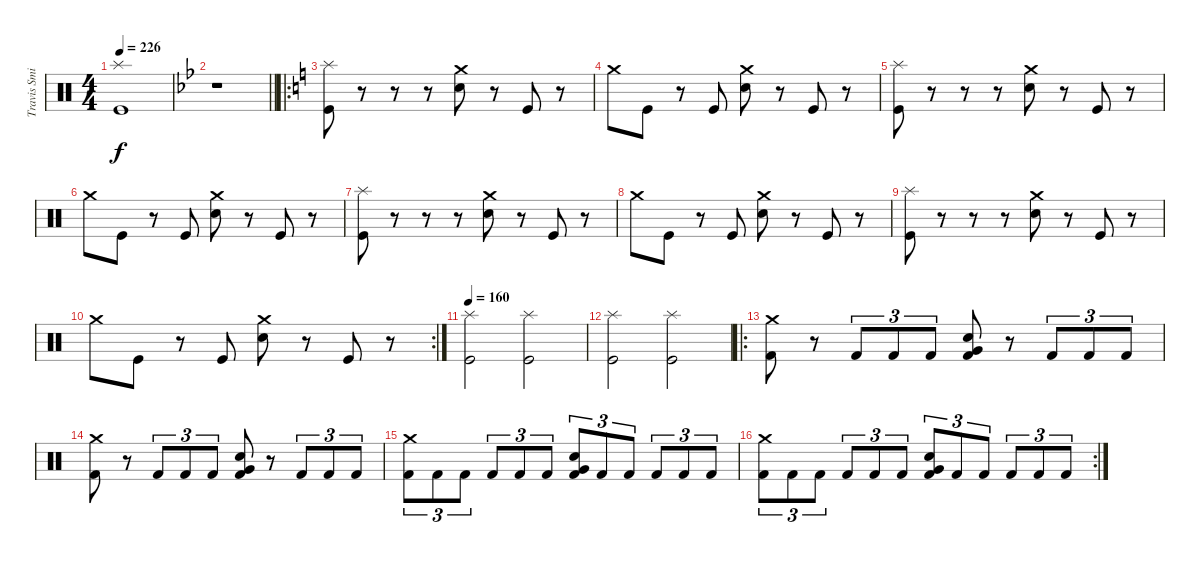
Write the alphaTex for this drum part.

\track ("Travis Smith" "Travis Smi") {instrument percussion}
\staff {score}
\articulation defaults
\ts (4 4)
\tempo 226
\clef neutral
\ks c
("Splash (hit)" "Kick (hit)").1{dy f} |
\barLineRight lightlight
\ks bb
r.1 |
\ro
\ks c
("Splash (hit)" "Kick (hit)").8 r.8 r.8 r.8 ("Crash medium (hit)" "Electric Snare (hit)").8 r.8 "Kick (hit)".8 r.8 |
"Crash medium (hit)".8 "Kick (hit)".8 r.8 "Kick (hit)".8 ("Crash medium (hit)" "Electric Snare (hit)").8 r.8 "Kick (hit)".8 r.8 |
("Splash (hit)" "Kick (hit)").8 r.8 r.8 r.8 ("Crash medium (hit)" "Electric Snare (hit)").8 r.8 "Kick (hit)".8 r.8 |
"Crash medium (hit)".8 "Kick (hit)".8 r.8 "Kick (hit)".8 ("Crash medium (hit)" "Electric Snare (hit)").8 r.8 "Kick (hit)".8 r.8 |
("Splash (hit)" "Kick (hit)").8 r.8 r.8 r.8 ("Crash medium (hit)" "Electric Snare (hit)").8 r.8 "Kick (hit)".8 r.8 |
"Crash medium (hit)".8 "Kick (hit)".8 r.8 "Kick (hit)".8 ("Crash medium (hit)" "Electric Snare (hit)").8 r.8 "Kick (hit)".8 r.8 |
("Splash (hit)" "Kick (hit)").8 r.8 r.8 r.8 ("Crash medium (hit)" "Electric Snare (hit)").8 r.8 "Kick (hit)".8 r.8 |
\rc 2 "Crash medium (hit)".8 "Kick (hit)".8
r.8 "Kick (hit)".8 ("Crash medium (hit)" "Electric Snare (hit)").8 r.8 "Kick (hit)".8 r.8 |
\tempo 160
("Splash (hit)" "Kick (hit)").2 ("Splash (hit)" "Kick (hit)").2 |
("Splash (hit)" "Kick (hit)").2 ("Splash (hit)" "Kick (hit)").2 |
\ro
("Crash medium (hit)" "Kick (hit) 2").8 r.8 "Kick (hit) 2".8{tu (3 2)} "Kick (hit) 2".8{tu (3 2)} "Kick (hit) 2".8{tu (3 2)} ("Very Low Tom (hit)" "Electric Snare (hit)" "Kick (hit) 2").8 r.8 "Kick (hit) 2".8{tu (3 2)} "Kick (hit) 2".8{tu (3 2)} "Kick (hit) 2".8{tu (3 2)} |
("Crash medium (hit)" "Kick (hit) 2").8 r.8 "Kick (hit) 2".8{tu (3 2)} "Kick (hit) 2".8{tu (3 2)} "Kick (hit) 2".8{tu (3 2)} ("Very Low Tom (hit)" "Electric Snare (hit)" "Kick (hit) 2").8 r.8 "Kick (hit) 2".8{tu (3 2)} "Kick (hit) 2".8{tu (3 2)} "Kick (hit) 2".8{tu (3 2)} |
("Crash medium (hit)" "Kick (hit) 2").8{tu (3 2)} "Kick (hit) 2".8{tu (3 2)} "Kick (hit) 2".8{tu (3 2)} "Kick (hit) 2".8{tu (3 2)} "Kick (hit) 2".8{tu (3 2)} "Kick (hit) 2".8{tu (3 2)} ("Very Low Tom (hit)" "Electric Snare (hit)" "Kick (hit) 2").8{tu (3 2)} "Kick (hit) 2".8{tu (3 2)} "Kick (hit) 2".8{tu (3 2)} "Kick (hit) 2".8{tu (3 2)} "Kick (hit) 2".8{tu (3 2)} "Kick (hit) 2".8{tu (3 2)} |
\rc 2
("Crash medium (hit)" "Kick (hit) 2").8{tu (3 2)} "Kick (hit) 2".8{tu (3 2)} "Kick (hit) 2".8{tu (3 2)} "Kick (hit) 2".8{tu (3 2)} "Kick (hit) 2".8{tu (3 2)} "Kick (hit) 2".8{tu (3 2)} ("Very Low Tom (hit)" "Electric Snare (hit)" "Kick (hit) 2").8{tu (3 2)} "Kick (hit) 2".8{tu (3 2)} "Kick (hit) 2".8{tu (3 2)} "Kick (hit) 2".8{tu (3 2)} "Kick (hit) 2".8{tu (3 2)} "Kick (hit) 2".8{tu (3 2)}
